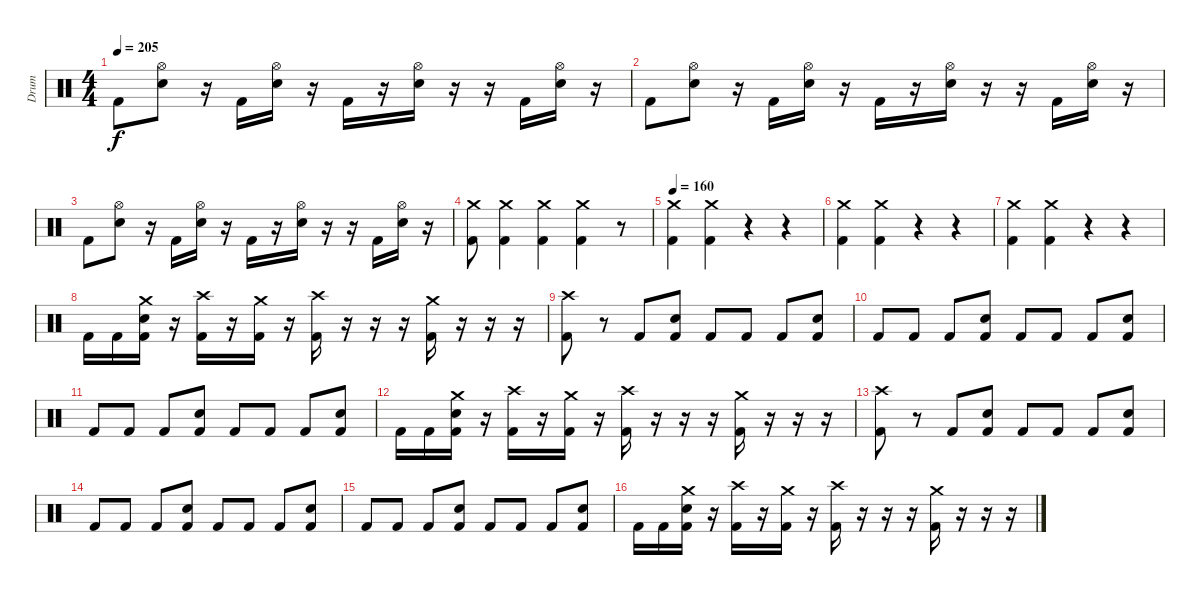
\track ("Drum" "Drum") {instrument percussion}
\staff {score}
\articulation defaults
\ts (4 4)
\tempo 205
\clef neutral
\ks c "Kick (hit) 2".8{dy f}
("Hi-Hat (open)" "Electric Snare (hit)").8 r.16 "Kick (hit) 2".16 ("Hi-Hat (open)" "Electric Snare (hit)").16 r.16 "Kick (hit) 2".16 r.16 ("Hi-Hat (open)" "Electric Snare (hit)").16 r.16 r.16 "Kick (hit) 2".16 ("Hi-Hat (open)" "Electric Snare (hit)").16 r.16 |
"Kick (hit) 2".8 ("Hi-Hat (open)" "Electric Snare (hit)").8 r.16 "Kick (hit) 2".16 ("Hi-Hat (open)" "Electric Snare (hit)").16 r.16 "Kick (hit) 2".16 r.16 ("Hi-Hat (open)" "Electric Snare (hit)").16 r.16 r.16 "Kick (hit) 2".16 ("Hi-Hat (open)" "Electric Snare (hit)").16 r.16 |
"Kick (hit) 2".8 ("Hi-Hat (open)" "Electric Snare (hit)").8 r.16 "Kick (hit) 2".16 ("Hi-Hat (open)" "Electric Snare (hit)").16 r.16 "Kick (hit) 2".16 r.16 ("Hi-Hat (open)" "Electric Snare (hit)").16 r.16 r.16 "Kick (hit) 2".16 ("Hi-Hat (open)" "Electric Snare (hit)").16 r.16 |
("Crash medium (hit)" "Kick (hit) 2").8 ("Crash medium (hit)" "Kick (hit) 2").4 ("Crash medium (hit)" "Kick (hit) 2").4 ("Crash medium (hit)" "Kick (hit) 2").4 r.8 |
\tempo 160
("Crash medium (hit)" "Kick (hit) 2").4 ("Crash medium (hit)" "Kick (hit) 2").4 r.4 r.4 |
("Crash medium (hit)" "Kick (hit) 2").4 ("Crash medium (hit)" "Kick (hit) 2").4 r.4 r.4 |
("Crash medium (hit)" "Kick (hit) 2").4 ("Crash medium (hit)" "Kick (hit) 2").4 r.4 r.4 |
"Kick (hit) 2".16 "Kick (hit) 2".16 ("Crash medium (hit)" "Electric Snare (hit)" "Kick (hit) 2").16 r.16 ("Crash high (hit)" "Kick (hit) 2").16 r.16 ("Crash medium (hit)" "Kick (hit) 2").16 r.16 ("Crash high (hit)" "Kick (hit) 2").16 r.16 r.16 r.16 ("Crash medium (hit)" "Kick (hit) 2").16 r.16 r.16 r.16 |
("Crash high (hit)" "Kick (hit) 2").8 r.8 "Kick (hit) 2".8 ("Electric Snare (hit)" "Kick (hit) 2").8 "Kick (hit) 2".8 "Kick (hit) 2".8 "Kick (hit) 2".8 ("Electric Snare (hit)" "Kick (hit) 2").8 |
"Kick (hit) 2".8 "Kick (hit) 2".8 "Kick (hit) 2".8 ("Electric Snare (hit)" "Kick (hit) 2").8 "Kick (hit) 2".8 "Kick (hit) 2".8 "Kick (hit) 2".8 ("Electric Snare (hit)" "Kick (hit) 2").8 |
"Kick (hit) 2".8 "Kick (hit) 2".8 "Kick (hit) 2".8 ("Electric Snare (hit)" "Kick (hit) 2").8 "Kick (hit) 2".8 "Kick (hit) 2".8 "Kick (hit) 2".8 ("Electric Snare (hit)" "Kick (hit) 2").8 |
"Kick (hit) 2".16 "Kick (hit) 2".16 ("Crash medium (hit)" "Electric Snare (hit)" "Kick (hit) 2").16 r.16 ("Crash high (hit)" "Kick (hit) 2").16 r.16 ("Crash medium (hit)" "Kick (hit) 2").16 r.16 ("Crash high (hit)" "Kick (hit) 2").16 r.16 r.16 r.16 ("Crash medium (hit)" "Kick (hit) 2").16 r.16 r.16 r.16 |
("Crash high (hit)" "Kick (hit) 2").8 r.8 "Kick (hit) 2".8 ("Electric Snare (hit)" "Kick (hit) 2").8 "Kick (hit) 2".8 "Kick (hit) 2".8 "Kick (hit) 2".8 ("Electric Snare (hit)" "Kick (hit) 2").8 |
"Kick (hit) 2".8 "Kick (hit) 2".8 "Kick (hit) 2".8 ("Electric Snare (hit)" "Kick (hit) 2").8 "Kick (hit) 2".8 "Kick (hit) 2".8 "Kick (hit) 2".8 ("Electric Snare (hit)" "Kick (hit) 2").8 |
"Kick (hit) 2".8 "Kick (hit) 2".8 "Kick (hit) 2".8 ("Electric Snare (hit)" "Kick (hit) 2").8 "Kick (hit) 2".8 "Kick (hit) 2".8 "Kick (hit) 2".8 ("Electric Snare (hit)" "Kick (hit) 2").8 |
"Kick (hit) 2".16 "Kick (hit) 2".16 ("Crash medium (hit)" "Electric Snare (hit)" "Kick (hit) 2").16 r.16 ("Crash high (hit)" "Kick (hit) 2").16 r.16 ("Crash medium (hit)" "Kick (hit) 2").16 r.16 ("Crash high (hit)" "Kick (hit) 2").16 r.16 r.16 r.16 ("Crash medium (hit)" "Kick (hit) 2").16 r.16 r.16 r.16
